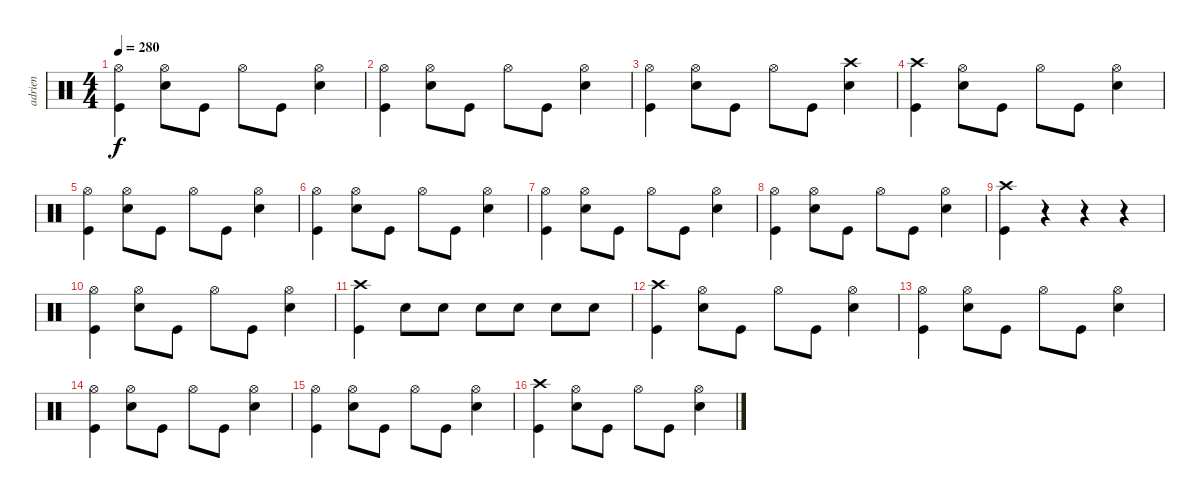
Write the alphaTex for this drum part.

\track ("adrien" "adrien") {instrument percussion}
\staff {score}
\articulation defaults
\ts (4 4)
\tempo 280
\clef neutral
\ks c
("Hi-Hat (open)" "Kick (hit)").4{dy f} ("Hi-Hat (open)" "Snare (hit) 2").8 "Kick (hit)".8 "Hi-Hat (open)".8 "Kick (hit)".8 ("Hi-Hat (open)" "Snare (hit) 2").4 |
("Hi-Hat (open)" "Kick (hit)").4 ("Hi-Hat (open)" "Snare (hit) 2").8 "Kick (hit)".8 "Hi-Hat (open)".8 "Kick (hit)".8 ("Hi-Hat (open)" "Snare (hit) 2").4 |
("Hi-Hat (open)" "Kick (hit)").4 ("Hi-Hat (open)" "Snare (hit) 2").8 "Kick (hit)".8 "Hi-Hat (open)".8 "Kick (hit)".8 ("Crash high (hit)" "Snare (hit) 2").4 |
("Crash high (hit)" "Kick (hit)").4 ("Hi-Hat (open)" "Snare (hit) 2").8 "Kick (hit)".8 "Hi-Hat (open)".8 "Kick (hit)".8 ("Hi-Hat (open)" "Snare (hit) 2").4 |
("Hi-Hat (open)" "Kick (hit)").4 ("Hi-Hat (open)" "Snare (hit) 2").8 "Kick (hit)".8 "Hi-Hat (open)".8 "Kick (hit)".8 ("Hi-Hat (open)" "Snare (hit) 2").4 |
("Hi-Hat (open)" "Kick (hit)").4 ("Hi-Hat (open)" "Snare (hit) 2").8 "Kick (hit)".8 "Hi-Hat (open)".8 "Kick (hit)".8 ("Hi-Hat (open)" "Snare (hit) 2").4 |
("Hi-Hat (open)" "Kick (hit)").4 ("Hi-Hat (open)" "Snare (hit) 2").8 "Kick (hit)".8 "Hi-Hat (open)".8 "Kick (hit)".8 ("Hi-Hat (open)" "Snare (hit) 2").4 |
("Hi-Hat (open)" "Kick (hit)").4 ("Hi-Hat (open)" "Snare (hit) 2").8 "Kick (hit)".8 "Hi-Hat (open)".8 "Kick (hit)".8 ("Hi-Hat (open)" "Snare (hit) 2").4 |
("Crash high (hit)" "Kick (hit)").4 r.4 r.4 r.4 |
("Hi-Hat (open)" "Kick (hit)").4 ("Hi-Hat (open)" "Snare (hit) 2").8 "Kick (hit)".8 "Hi-Hat (open)".8 "Kick (hit)".8 ("Hi-Hat (open)" "Snare (hit) 2").4 |
("Crash high (hit)" "Kick (hit)").4 "Snare (hit) 2".8 "Snare (hit) 2".8 "Snare (hit) 2".8 "Snare (hit) 2".8 "Snare (hit) 2".8 "Snare (hit) 2".8 |
("Crash high (hit)" "Kick (hit)").4 ("Hi-Hat (open)" "Snare (hit) 2").8 "Kick (hit)".8 "Hi-Hat (open)".8 "Kick (hit)".8 ("Hi-Hat (open)" "Snare (hit) 2").4 |
("Hi-Hat (open)" "Kick (hit)").4 ("Hi-Hat (open)" "Snare (hit) 2").8 "Kick (hit)".8 "Hi-Hat (open)".8 "Kick (hit)".8 ("Hi-Hat (open)" "Snare (hit) 2").4 |
("Hi-Hat (open)" "Kick (hit)").4 ("Hi-Hat (open)" "Snare (hit) 2").8 "Kick (hit)".8 "Hi-Hat (open)".8 "Kick (hit)".8 ("Hi-Hat (open)" "Snare (hit) 2").4 |
("Hi-Hat (open)" "Kick (hit)").4 ("Hi-Hat (open)" "Snare (hit) 2").8 "Kick (hit)".8 "Hi-Hat (open)".8 "Kick (hit)".8 ("Hi-Hat (open)" "Snare (hit) 2").4 |
("Crash high (hit)" "Kick (hit)").4 ("Hi-Hat (open)" "Snare (hit) 2").8 "Kick (hit)".8 "Hi-Hat (open)".8 "Kick (hit)".8 ("Hi-Hat (open)" "Snare (hit) 2").4
